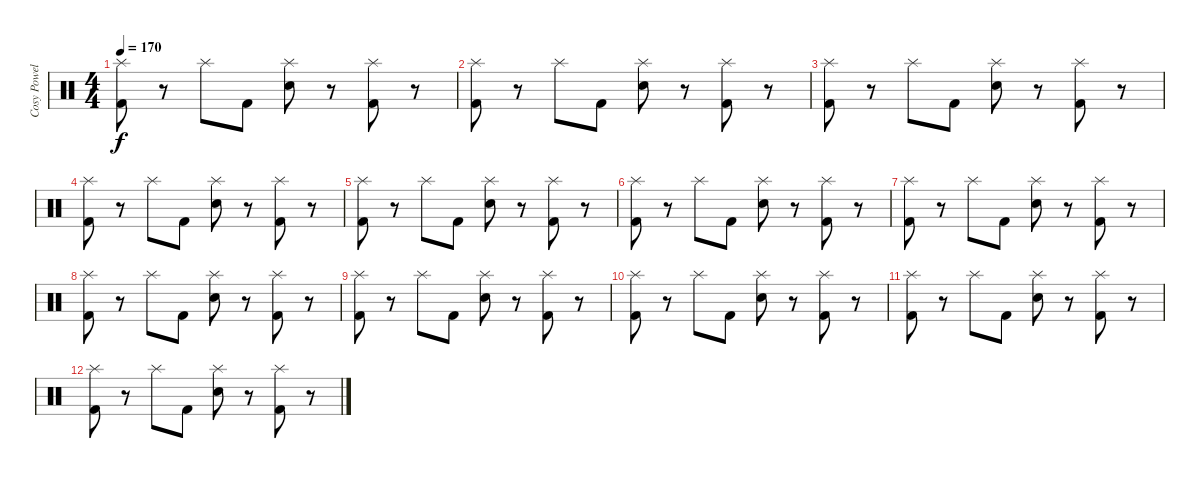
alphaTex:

\track ("Cosy Powell" "Cosy Powel") {instrument percussion}
\staff {score}
\articulation defaults
\ts (4 4)
\tempo 170
\clef neutral
\ks c
("Splash (hit)" "Kick (hit) 2").8{dy f} r.8 "Splash (hit)".8 "Kick (hit) 2".8 ("Splash (hit)" "Snare (hit) 2").8 r.8 ("Splash (hit)" "Kick (hit) 2").8 r.8 |
("Splash (hit)" "Kick (hit) 2").8 r.8 "Splash (hit)".8 "Kick (hit) 2".8 ("Splash (hit)" "Snare (hit) 2").8 r.8 ("Splash (hit)" "Kick (hit) 2").8 r.8 |
("Splash (hit)" "Kick (hit) 2").8 r.8 "Splash (hit)".8 "Kick (hit) 2".8 ("Splash (hit)" "Snare (hit) 2").8 r.8 ("Splash (hit)" "Kick (hit) 2").8 r.8 |
("Splash (hit)" "Kick (hit) 2").8 r.8 "Splash (hit)".8 "Kick (hit) 2".8 ("Splash (hit)" "Snare (hit) 2").8 r.8 ("Splash (hit)" "Kick (hit) 2").8 r.8 |
("Splash (hit)" "Kick (hit) 2").8 r.8 "Splash (hit)".8 "Kick (hit) 2".8 ("Splash (hit)" "Snare (hit) 2").8 r.8 ("Splash (hit)" "Kick (hit) 2").8 r.8 |
("Splash (hit)" "Kick (hit) 2").8 r.8 "Splash (hit)".8 "Kick (hit) 2".8 ("Splash (hit)" "Snare (hit) 2").8 r.8 ("Splash (hit)" "Kick (hit) 2").8 r.8 |
("Splash (hit)" "Kick (hit) 2").8 r.8 "Splash (hit)".8 "Kick (hit) 2".8 ("Splash (hit)" "Snare (hit) 2").8 r.8 ("Splash (hit)" "Kick (hit) 2").8 r.8 |
("Splash (hit)" "Kick (hit) 2").8 r.8 "Splash (hit)".8 "Kick (hit) 2".8 ("Splash (hit)" "Snare (hit) 2").8 r.8 ("Splash (hit)" "Kick (hit) 2").8 r.8 |
("Splash (hit)" "Kick (hit) 2").8 r.8 "Splash (hit)".8 "Kick (hit) 2".8 ("Splash (hit)" "Snare (hit) 2").8 r.8 ("Splash (hit)" "Kick (hit) 2").8 r.8 |
("Splash (hit)" "Kick (hit) 2").8 r.8 "Splash (hit)".8 "Kick (hit) 2".8 ("Splash (hit)" "Snare (hit) 2").8 r.8 ("Splash (hit)" "Kick (hit) 2").8 r.8 |
("Splash (hit)" "Kick (hit) 2").8 r.8 "Splash (hit)".8 "Kick (hit) 2".8 ("Splash (hit)" "Snare (hit) 2").8 r.8 ("Splash (hit)" "Kick (hit) 2").8 r.8 |
("Splash (hit)" "Kick (hit) 2").8 r.8 "Splash (hit)".8 "Kick (hit) 2".8 ("Splash (hit)" "Snare (hit) 2").8 r.8 ("Splash (hit)" "Kick (hit) 2").8 r.8
